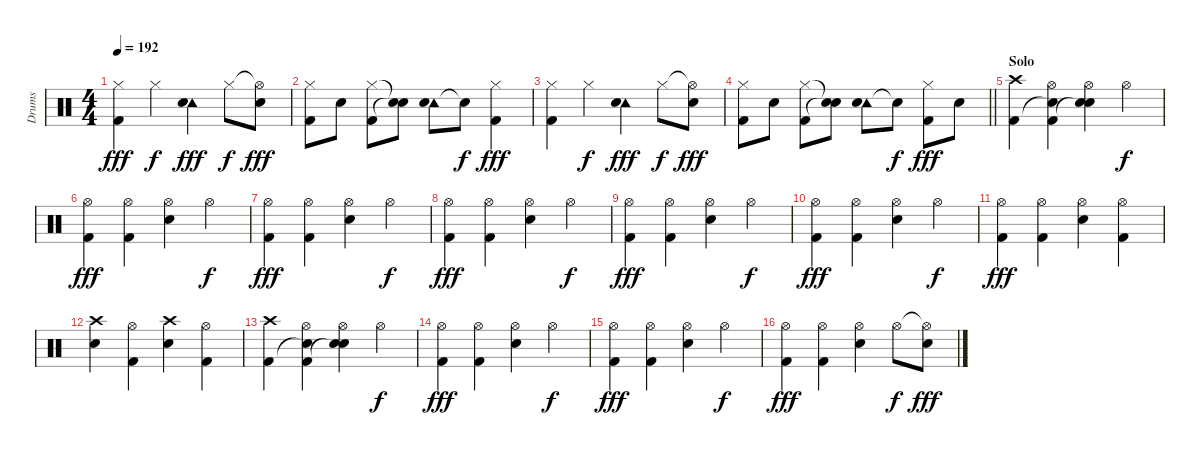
\track ("Drums" "Drums") {instrument percussion}
\staff {score}
\articulation defaults
\ts (4 4)
\tempo 192
\clef neutral
\ks c
("Hi-Hat (closed)" "Kick (hit) 2").4{dy fff} "Hi-Hat (closed)".4{dy f} ("Tambourine (hit)" "Snare (hit) 2").4{dy fff} "Hi-Hat (closed)".8{dy f} ("Hi-Hat (open)"{t} "Snare (hit) 2").8{dy fff} |
("Hi-Hat (closed)" "Kick (hit) 2").8 "Snare (hit) 2".8 ("Hi-Hat (closed)" "Kick (hit) 2").8 ("Snare (hit)"{t} "Snare (hit)"{t}).8 ("Tambourine (hit)" "Snare (hit) 2").8 "Snare (hit)"{t}.8{dy f} ("Hi-Hat (closed)" "Kick (hit) 2").4{dy fff} |
("Hi-Hat (closed)" "Kick (hit) 2").4 "Hi-Hat (closed)".4{dy f} ("Tambourine (hit)" "Snare (hit) 2").4{dy fff} "Hi-Hat (closed)".8{dy f} ("Hi-Hat (open)"{t} "Snare (hit) 2").8{dy fff} |
\barLineRight lightlight
("Hi-Hat (closed)" "Kick (hit) 2").8 "Snare (hit) 2".8 ("Hi-Hat (closed)" "Kick (hit) 2").8 ("Snare (hit)"{t} "Snare (hit)"{t}).8 ("Tambourine (hit)" "Snare (hit) 2").8 "Snare (hit)"{t}.8{dy f} ("Hi-Hat (closed)" "Kick (hit) 2").8{dy fff} "Snare (hit) 2".8 |
\section ("" "Solo")
("Crash high (hit)" "Kick (hit) 2").4 ("Hi-Hat (open)" "Snare (hit)"{t} "Kick (hit) 2").4 ("Hi-Hat (open)" "Snare (hit) 2" "Snare (hit)"{t}).4 "Hi-Hat (open)".4{dy f} |
("Hi-Hat (open)" "Kick (hit) 2").4{dy fff} ("Hi-Hat (open)" "Kick (hit) 2").4 ("Hi-Hat (open)" "Snare (hit) 2").4 "Hi-Hat (open)".4{dy f} |
("Hi-Hat (open)" "Kick (hit) 2").4{dy fff} ("Hi-Hat (open)" "Kick (hit) 2").4 ("Hi-Hat (open)" "Snare (hit) 2").4 "Hi-Hat (open)".4{dy f} |
("Hi-Hat (open)" "Kick (hit) 2").4{dy fff} ("Hi-Hat (open)" "Kick (hit) 2").4 ("Hi-Hat (open)" "Snare (hit) 2").4 "Hi-Hat (open)".4{dy f} |
("Hi-Hat (open)" "Kick (hit) 2").4{dy fff} ("Hi-Hat (open)" "Kick (hit) 2").4 ("Hi-Hat (open)" "Snare (hit) 2").4 "Hi-Hat (open)".4{dy f} |
("Hi-Hat (open)" "Kick (hit) 2").4{dy fff} ("Hi-Hat (open)" "Kick (hit) 2").4 ("Hi-Hat (open)" "Snare (hit) 2").4 "Hi-Hat (open)".4{dy f} |
("Hi-Hat (open)" "Kick (hit) 2").4{dy fff} ("Hi-Hat (open)" "Kick (hit) 2").4 ("Hi-Hat (open)" "Snare (hit) 2").4 ("Hi-Hat (open)" "Kick (hit) 2").4 |
("Crash high (hit)" "Snare (hit) 2").4 ("Hi-Hat (open)" "Kick (hit) 2").4 ("Crash high (hit)" "Snare (hit) 2").4 ("Hi-Hat (open)" "Kick (hit) 2").4 |
("Crash high (hit)" "Kick (hit) 2").4 ("Hi-Hat (open)" "Snare (hit)"{t} "Kick (hit) 2").4 ("Hi-Hat (open)" "Snare (hit) 2" "Snare (hit)"{t}).4 "Hi-Hat (open)".4{dy f} |
("Hi-Hat (open)" "Kick (hit) 2").4{dy fff} ("Hi-Hat (open)" "Kick (hit) 2").4 ("Hi-Hat (open)" "Snare (hit) 2").4 "Hi-Hat (open)".4{dy f} |
("Hi-Hat (open)" "Kick (hit) 2").4{dy fff} ("Hi-Hat (open)" "Kick (hit) 2").4 ("Hi-Hat (open)" "Snare (hit) 2").4 "Hi-Hat (open)".4{dy f} |
("Hi-Hat (open)" "Kick (hit) 2").4{dy fff} ("Hi-Hat (open)" "Kick (hit) 2").4 ("Hi-Hat (open)" "Snare (hit) 2").4 "Hi-Hat (open)".8{dy f} ("Hi-Hat (open)"{t} "Snare (hit) 2").8{dy fff}
